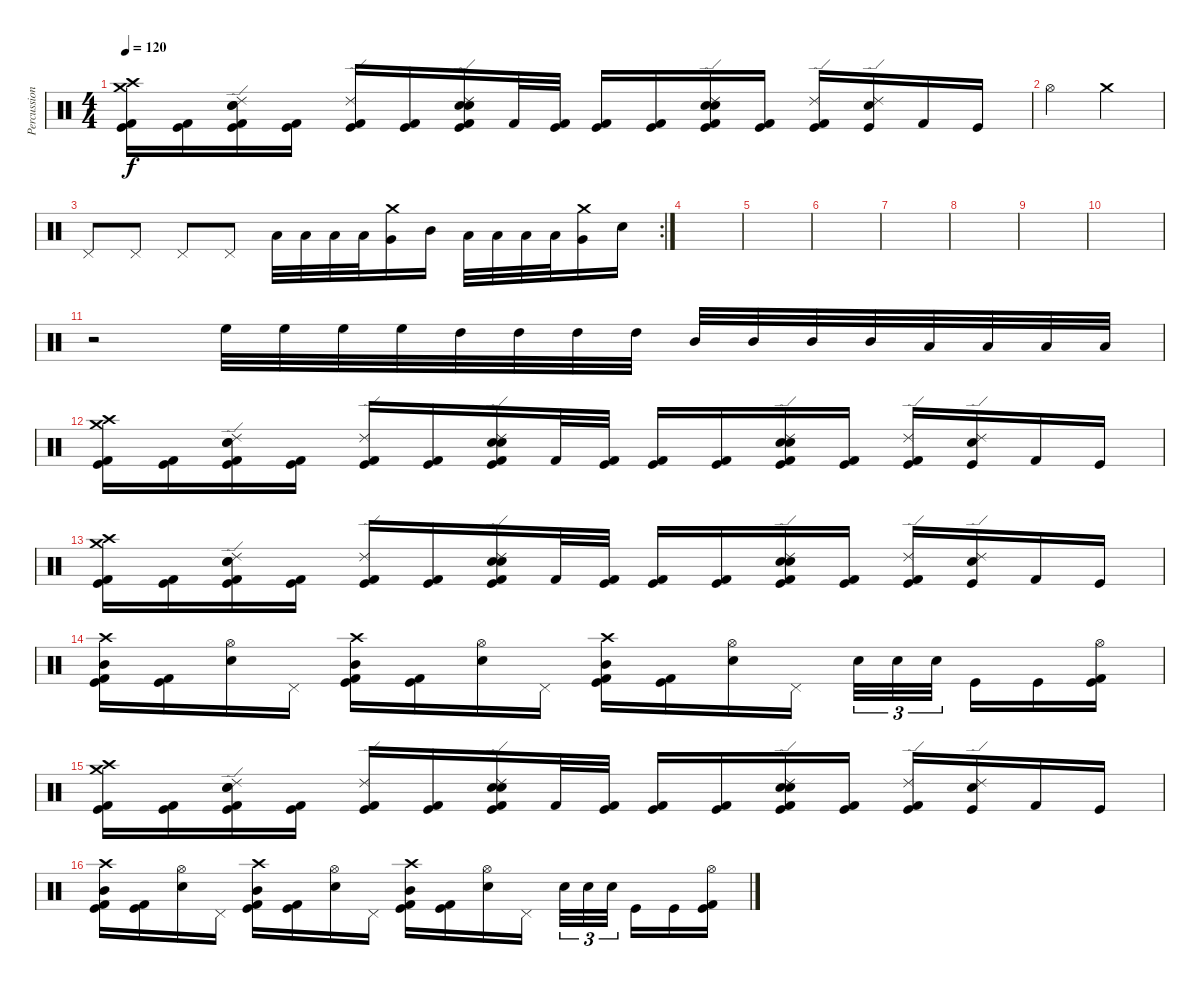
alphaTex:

\track ("Percussion" "Percussion") {instrument percussion}
\staff {score}
\articulation defaults
\ts (4 4)
\tempo 120
\clef neutral
\ks c
("Crash high (hit)" "Crash medium (hit)" "Kick (hit) 2" "Kick (hit)").16{dy f} ("Kick (hit) 2" "Kick (hit)").16 ("Ride (edge) 2" "Electric Snare (hit)" "Snare (hit) 2" "Kick (hit) 2" "Kick (hit)").16 ("Kick (hit) 2" "Kick (hit)").16 ("Ride (edge) 2" "Kick (hit) 2" "Kick (hit)").16 ("Kick (hit) 2" "Kick (hit)").16 ("Ride (edge) 2" "Electric Snare (hit)" "Snare (hit) 2" "Kick (hit) 2" "Kick (hit)").16 "Kick (hit) 2".32 ("Kick (hit) 2" "Kick (hit)").32 ("Kick (hit) 2" "Kick (hit)").16 ("Kick (hit) 2" "Kick (hit)").16 ("Ride (edge) 2" "Electric Snare (hit)" "Snare (hit) 2" "Kick (hit) 2" "Kick (hit)").16 ("Kick (hit) 2" "Kick (hit)").16 ("Ride (edge) 2" "Kick (hit) 2" "Kick (hit)").16 ("Snare (hit) 2" "Kick (hit)" "Ride (edge) 2").16 "Kick (hit) 2".16 "Kick (hit)".16 |
"Hi-Hat (open)".2 "Crash medium (hit)".2 |
\rc 2 "Pedal Hi-Hat (hit)".8 "Pedal Hi-Hat (hit)".8 "Pedal Hi-Hat (hit)".8 "Pedal Hi-Hat (hit)".8 "Low Tom (hit)".32 "Low Tom (hit)".32 "Low Tom (hit)".32 "Low Tom (hit)".32
("Crash medium (hit)" "Very Low Tom (hit)").16 "Mid Tom (hit)".16 "Low Tom (hit)".32 "Low Tom (hit)".32 "Low Tom (hit)".32 "Low Tom (hit)".32 ("Crash medium (hit)" "Very Low Tom (hit)").16 "Snare (hit) 2".16 |
|
|
|
|
|
|
|
r.2 "High Floor Tom (hit)".32 "High Floor Tom (hit)".32 "High Floor Tom (hit)".32 "High Floor Tom (hit)".32 "High Tom (hit)".32 "High Tom (hit)".32 "High Tom (hit)".32 "High Tom (hit)".32 "Mid Tom (hit)".32 "Mid Tom (hit)".32 "Mid Tom (hit)".32 "Mid Tom (hit)".32 "Low Tom (hit)".32 "Low Tom (hit)".32 "Low Tom (hit)".32 "Low Tom (hit)".32 |
("Crash high (hit)" "Crash medium (hit)" "Kick (hit) 2" "Kick (hit)").16 ("Kick (hit) 2" "Kick (hit)").16 ("Ride (edge) 2" "Electric Snare (hit)" "Snare (hit) 2" "Kick (hit) 2" "Kick (hit)").16 ("Kick (hit) 2" "Kick (hit)").16 ("Ride (edge) 2" "Kick (hit) 2" "Kick (hit)").16 ("Kick (hit) 2" "Kick (hit)").16 ("Ride (edge) 2" "Electric Snare (hit)" "Snare (hit) 2" "Kick (hit) 2" "Kick (hit)").16 "Kick (hit) 2".32 ("Kick (hit) 2" "Kick (hit)").32 ("Kick (hit) 2" "Kick (hit)").16 ("Kick (hit) 2" "Kick (hit)").16 ("Ride (edge) 2" "Electric Snare (hit)" "Snare (hit) 2" "Kick (hit) 2" "Kick (hit)").16 ("Kick (hit) 2" "Kick (hit)").16 ("Ride (edge) 2" "Kick (hit) 2" "Kick (hit)").16 ("Snare (hit) 2" "Kick (hit)" "Ride (edge) 2").16 "Kick (hit) 2".16 "Kick (hit)".16 |
("Crash high (hit)" "Crash medium (hit)" "Kick (hit) 2" "Kick (hit)").16 ("Kick (hit) 2" "Kick (hit)").16 ("Ride (edge) 2" "Electric Snare (hit)" "Snare (hit) 2" "Kick (hit) 2" "Kick (hit)").16 ("Kick (hit) 2" "Kick (hit)").16 ("Ride (edge) 2" "Kick (hit) 2" "Kick (hit)").16 ("Kick (hit) 2" "Kick (hit)").16 ("Ride (edge) 2" "Electric Snare (hit)" "Snare (hit) 2" "Kick (hit) 2" "Kick (hit)").16 "Kick (hit) 2".32 ("Kick (hit) 2" "Kick (hit)").32 ("Kick (hit) 2" "Kick (hit)").16 ("Kick (hit) 2" "Kick (hit)").16 ("Ride (edge) 2" "Electric Snare (hit)" "Snare (hit) 2" "Kick (hit) 2" "Kick (hit)").16 ("Kick (hit) 2" "Kick (hit)").16 ("Ride (edge) 2" "Kick (hit) 2" "Kick (hit)").16 ("Snare (hit) 2" "Kick (hit)" "Ride (edge) 2").16 "Kick (hit) 2".16 "Kick (hit)".16 |
("Crash high (hit)" "Mid Tom (hit)" "Kick (hit) 2" "Kick (hit)").16 ("Kick (hit)" "Kick (hit) 2").16 ("Snare (hit) 2" "Hi-Hat (open)").16 "Pedal Hi-Hat (hit)".16 ("Crash high (hit)" "Mid Tom (hit)" "Kick (hit) 2" "Kick (hit)").16 ("Kick (hit)" "Kick (hit) 2").16 ("Snare (hit) 2" "Hi-Hat (open)").16 "Pedal Hi-Hat (hit)".16 ("Crash high (hit)" "Mid Tom (hit)" "Kick (hit) 2" "Kick (hit)").16 ("Kick (hit)" "Kick (hit) 2").16 ("Snare (hit) 2" "Hi-Hat (open)").16 "Pedal Hi-Hat (hit)".16 "Snare (hit) 2".32{tu (3 2)} "Snare (hit) 2".32{tu (3 2)} "Snare (hit) 2".32{tu (3 2)} "Kick (hit)".16 "Kick (hit)".16 ("Kick (hit)" "Hi-Hat (open)" "Kick (hit) 2").16 |
("Crash high (hit)" "Crash medium (hit)" "Kick (hit) 2" "Kick (hit)").16 ("Kick (hit) 2" "Kick (hit)").16 ("Ride (edge) 2" "Electric Snare (hit)" "Snare (hit) 2" "Kick (hit) 2" "Kick (hit)").16 ("Kick (hit) 2" "Kick (hit)").16 ("Ride (edge) 2" "Kick (hit) 2" "Kick (hit)").16 ("Kick (hit) 2" "Kick (hit)").16 ("Ride (edge) 2" "Electric Snare (hit)" "Snare (hit) 2" "Kick (hit) 2" "Kick (hit)").16 "Kick (hit) 2".32 ("Kick (hit) 2" "Kick (hit)").32 ("Kick (hit) 2" "Kick (hit)").16 ("Kick (hit) 2" "Kick (hit)").16 ("Ride (edge) 2" "Electric Snare (hit)" "Snare (hit) 2" "Kick (hit) 2" "Kick (hit)").16 ("Kick (hit) 2" "Kick (hit)").16 ("Ride (edge) 2" "Kick (hit) 2" "Kick (hit)").16 ("Snare (hit) 2" "Kick (hit)" "Ride (edge) 2").16 "Kick (hit) 2".16 "Kick (hit)".16 |
("Crash high (hit)" "Mid Tom (hit)" "Kick (hit) 2" "Kick (hit)").16 ("Kick (hit)" "Kick (hit) 2").16 ("Snare (hit) 2" "Hi-Hat (open)").16 "Pedal Hi-Hat (hit)".16 ("Crash high (hit)" "Mid Tom (hit)" "Kick (hit) 2" "Kick (hit)").16 ("Kick (hit)" "Kick (hit) 2").16 ("Snare (hit) 2" "Hi-Hat (open)").16 "Pedal Hi-Hat (hit)".16 ("Crash high (hit)" "Mid Tom (hit)" "Kick (hit) 2" "Kick (hit)").16 ("Kick (hit)" "Kick (hit) 2").16 ("Snare (hit) 2" "Hi-Hat (open)").16 "Pedal Hi-Hat (hit)".16 "Snare (hit) 2".32{tu (3 2)} "Snare (hit) 2".32{tu (3 2)} "Snare (hit) 2".32{tu (3 2)} "Kick (hit)".16 "Kick (hit)".16 ("Kick (hit)" "Hi-Hat (open)" "Kick (hit) 2").16
